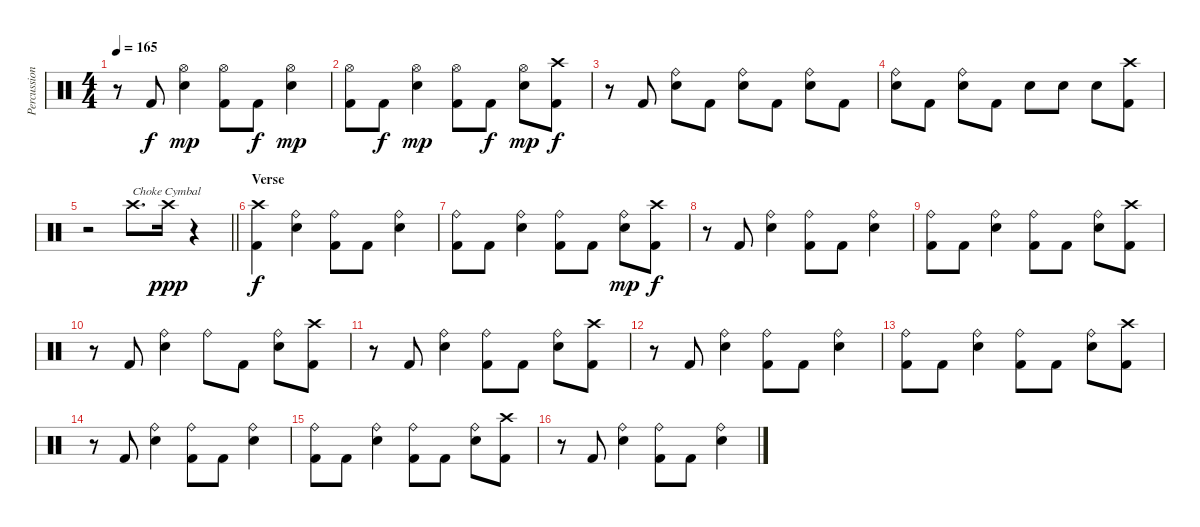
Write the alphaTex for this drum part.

\track ("Percussion" "Percussion") {instrument percussion}
\staff {score}
\articulation defaults
\ts (4 4)
\tempo 165
\clef neutral
\ks c
r.8{dy f} "Kick (hit) 2".8 ("Hi-Hat (open)" "Electric Snare (hit)").4{dy mp} ("Hi-Hat (open)" "Kick (hit) 2").8 "Kick (hit) 2".8{dy f} ("Hi-Hat (open)" "Electric Snare (hit)").4{dy mp} |
("Hi-Hat (open)" "Kick (hit) 2").8 "Kick (hit) 2".8{dy f} ("Hi-Hat (open)" "Electric Snare (hit)").4{dy mp} ("Hi-Hat (open)" "Kick (hit) 2").8 "Kick (hit) 2".8{dy f} ("Hi-Hat (open)" "Electric Snare (hit)").8{dy mp} ("Crash high (hit)" "Kick (hit) 2").8{dy f} |
r.8 "Kick (hit) 2".8 ("Ride (bell)" "Electric Snare (hit)").8 "Kick (hit) 2".8 ("Ride (bell)" "Electric Snare (hit)").8 "Kick (hit) 2".8 ("Ride (bell)" "Electric Snare (hit)").8 "Kick (hit) 2".8 |
("Ride (bell)" "Electric Snare (hit)").8 "Kick (hit) 2".8 ("Ride (bell)" "Electric Snare (hit)").8 "Kick (hit) 2".8 "Electric Snare (hit)".8 "Electric Snare (hit)".8 "Electric Snare (hit)".8 ("Crash high (hit)" "Kick (hit) 2").8 |
\barLineRight lightlight
r.2 "Crash high (hit)".8{d txt "Choke Cymbal"} "Crash high (hit)".16{dy ppp} r.4 |
\section ("" "Verse")
("Crash high (hit)" "Kick (hit) 2").4{dy f} ("Ride (bell)" "Electric Snare (hit)").4 ("Ride (bell)" "Kick (hit) 2").8 "Kick (hit) 2".8 ("Ride (bell)" "Electric Snare (hit)").4 |
("Ride (bell)" "Kick (hit) 2").8 "Kick (hit) 2".8 ("Ride (bell)" "Electric Snare (hit)").4 ("Ride (bell)" "Kick (hit) 2").8 "Kick (hit) 2".8 ("Ride (bell)" "Electric Snare (hit)").8{dy mp} ("Crash high (hit)" "Kick (hit) 2").8{dy f} |
r.8 "Kick (hit) 2".8 ("Ride (bell)" "Electric Snare (hit)").4 ("Ride (bell)" "Kick (hit) 2").8 "Kick (hit) 2".8 ("Ride (bell)" "Electric Snare (hit)").4 |
("Ride (bell)" "Kick (hit) 2").8 "Kick (hit) 2".8 ("Ride (bell)" "Electric Snare (hit)").4 ("Ride (bell)" "Kick (hit) 2").8 "Kick (hit) 2".8 ("Ride (bell)" "Electric Snare (hit)").8 ("Crash high (hit)" "Kick (hit) 2").8 |
r.8 "Kick (hit) 2".8 ("Ride (bell)" "Electric Snare (hit)").4 "Ride (bell)".8 "Kick (hit) 2".8 ("Ride (bell)" "Electric Snare (hit)").8 ("Crash high (hit)" "Kick (hit) 2").8 |
r.8 "Kick (hit) 2".8 ("Ride (bell)" "Electric Snare (hit)").4 ("Ride (bell)" "Kick (hit) 2").8 "Kick (hit) 2".8 ("Ride (bell)" "Electric Snare (hit)").8 ("Crash high (hit)" "Kick (hit) 2").8 |
r.8 "Kick (hit) 2".8 ("Ride (bell)" "Electric Snare (hit)").4 ("Ride (bell)" "Kick (hit) 2").8 "Kick (hit) 2".8 ("Ride (bell)" "Electric Snare (hit)").4 |
("Ride (bell)" "Kick (hit) 2").8 "Kick (hit) 2".8 ("Ride (bell)" "Electric Snare (hit)").4 ("Ride (bell)" "Kick (hit) 2").8 "Kick (hit) 2".8 ("Ride (bell)" "Electric Snare (hit)").8 ("Crash high (hit)" "Kick (hit) 2").8 |
r.8 "Kick (hit) 2".8 ("Ride (bell)" "Electric Snare (hit)").4 ("Ride (bell)" "Kick (hit) 2").8 "Kick (hit) 2".8 ("Ride (bell)" "Electric Snare (hit)").4 |
("Ride (bell)" "Kick (hit) 2").8 "Kick (hit) 2".8 ("Ride (bell)" "Electric Snare (hit)").4 ("Ride (bell)" "Kick (hit) 2").8 "Kick (hit) 2".8 ("Ride (bell)" "Electric Snare (hit)").8 ("Crash high (hit)" "Kick (hit) 2").8 |
r.8 "Kick (hit) 2".8 ("Ride (bell)" "Electric Snare (hit)").4 ("Ride (bell)" "Kick (hit) 2").8 "Kick (hit) 2".8 ("Ride (bell)" "Electric Snare (hit)").4
